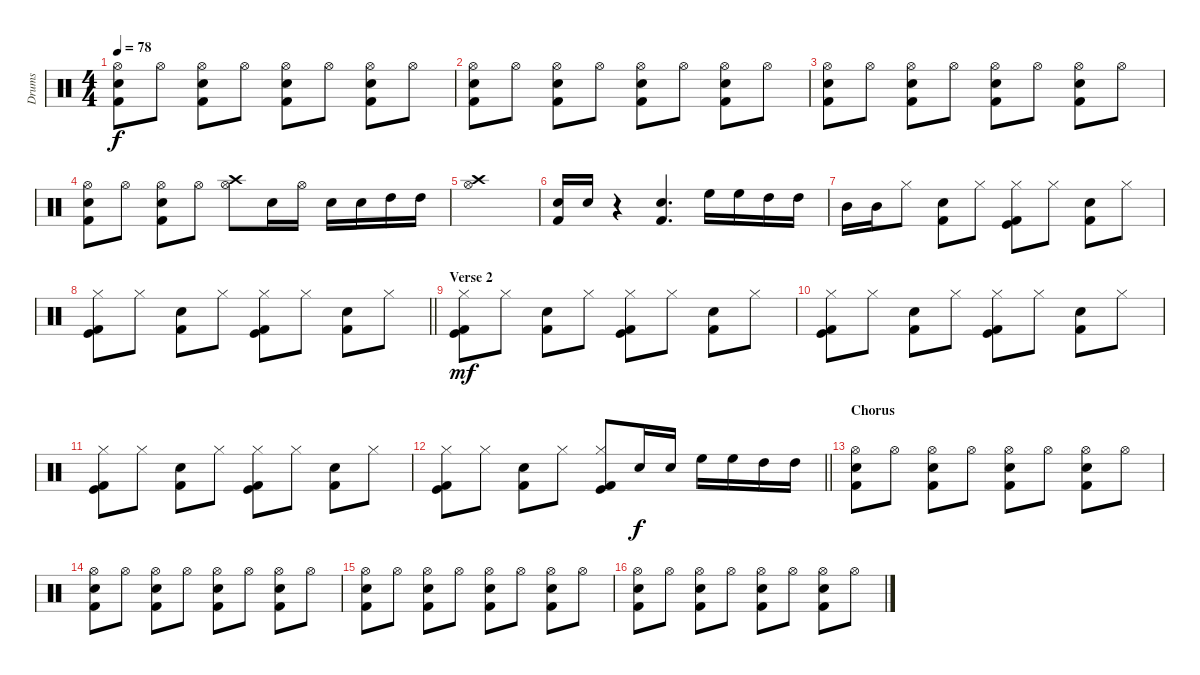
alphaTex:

\track ("Drums" "Drums") {instrument percussion}
\staff {score}
\articulation defaults
\ts (4 4)
\tempo 78
\clef neutral
\ks c
("Hi-Hat (open)" "Snare (hit) 2" "Kick (hit) 2").8{dy f} "Hi-Hat (open)".8 ("Hi-Hat (open)" "Snare (hit) 2" "Kick (hit) 2").8 "Hi-Hat (open)".8 ("Hi-Hat (open)" "Snare (hit) 2" "Kick (hit) 2").8 "Hi-Hat (open)".8 ("Hi-Hat (open)" "Snare (hit) 2" "Kick (hit) 2").8 "Hi-Hat (open)".8 |
("Hi-Hat (open)" "Snare (hit) 2" "Kick (hit) 2").8 "Hi-Hat (open)".8 ("Hi-Hat (open)" "Snare (hit) 2" "Kick (hit) 2").8 "Hi-Hat (open)".8 ("Hi-Hat (open)" "Snare (hit) 2" "Kick (hit) 2").8 "Hi-Hat (open)".8 ("Hi-Hat (open)" "Snare (hit) 2" "Kick (hit) 2").8 "Hi-Hat (open)".8 |
("Hi-Hat (open)" "Snare (hit) 2" "Kick (hit) 2").8 "Hi-Hat (open)".8 ("Hi-Hat (open)" "Snare (hit) 2" "Kick (hit) 2").8 "Hi-Hat (open)".8 ("Hi-Hat (open)" "Snare (hit) 2" "Kick (hit) 2").8 "Hi-Hat (open)".8 ("Hi-Hat (open)" "Snare (hit) 2" "Kick (hit) 2").8 "Hi-Hat (open)".8 |
("Hi-Hat (open)" "Snare (hit) 2" "Kick (hit) 2").8 "Hi-Hat (open)".8 ("Hi-Hat (open)" "Snare (hit) 2" "Kick (hit) 2").8 "Hi-Hat (open)".8 ("Crash high (hit)" "Hi-Hat (open)").8 "Snare (hit) 2".16 "Hi-Hat (open)".16 "Snare (hit) 2".16 "Snare (hit) 2".16 "High Tom (hit)".16 "High Tom (hit)".16 |
("Crash high (hit)" "Hi-Hat (open)").1 |
("Snare (hit) 2" "Kick (hit) 2").16 "Snare (hit) 2".16 r.4 ("Snare (hit) 2" "Kick (hit) 2").4{d} "High Floor Tom (hit)".16 "High Floor Tom (hit)".16 "High Tom (hit)".16 "High Tom (hit)".16 |
"Mid Tom (hit)".16 "Mid Tom (hit)".16 "Hi-Hat (closed)".8 ("Snare (hit) 2" "Kick (hit) 2").8 "Hi-Hat (closed)".8 ("Hi-Hat (closed)" "Kick (hit)" "Kick (hit) 2").8 "Hi-Hat (closed)".8 ("Snare (hit) 2" "Kick (hit) 2").8 "Hi-Hat (closed)".8 |
\barLineRight lightlight
("Hi-Hat (closed)" "Kick (hit)" "Kick (hit) 2").8 "Hi-Hat (closed)".8 ("Snare (hit) 2" "Kick (hit) 2").8 "Hi-Hat (closed)".8 ("Hi-Hat (closed)" "Kick (hit)" "Kick (hit) 2").8 "Hi-Hat (closed)".8 ("Snare (hit) 2" "Kick (hit) 2").8 "Hi-Hat (closed)".8 |
\section ("" "Verse 2")
("Hi-Hat (closed)" "Kick (hit)" "Kick (hit) 2").8{dy mf} "Hi-Hat (closed)".8 ("Snare (hit) 2" "Kick (hit) 2").8 "Hi-Hat (closed)".8 ("Hi-Hat (closed)" "Kick (hit)" "Kick (hit) 2").8 "Hi-Hat (closed)".8 ("Snare (hit) 2" "Kick (hit) 2").8 "Hi-Hat (closed)".8 |
("Hi-Hat (closed)" "Kick (hit)" "Kick (hit) 2").8 "Hi-Hat (closed)".8 ("Snare (hit) 2" "Kick (hit) 2").8 "Hi-Hat (closed)".8 ("Hi-Hat (closed)" "Kick (hit)" "Kick (hit) 2").8 "Hi-Hat (closed)".8 ("Snare (hit) 2" "Kick (hit) 2").8 "Hi-Hat (closed)".8 |
("Hi-Hat (closed)" "Kick (hit)" "Kick (hit) 2").8 "Hi-Hat (closed)".8 ("Snare (hit) 2" "Kick (hit) 2").8 "Hi-Hat (closed)".8 ("Hi-Hat (closed)" "Kick (hit)" "Kick (hit) 2").8 "Hi-Hat (closed)".8 ("Snare (hit) 2" "Kick (hit) 2").8 "Hi-Hat (closed)".8 |
\barLineRight lightlight
("Hi-Hat (closed)" "Kick (hit)" "Kick (hit) 2").8 "Hi-Hat (closed)".8 ("Snare (hit) 2" "Kick (hit) 2").8 "Hi-Hat (closed)".8 ("Hi-Hat (closed)" "Kick (hit)" "Kick (hit) 2").8 "Snare (hit) 2".16{dy f} "Snare (hit) 2".16 "High Floor Tom (hit)".16 "High Floor Tom (hit)".16 "High Tom (hit)".16 "High Tom (hit)".16 |
\section ("" "Chorus")
("Hi-Hat (open)" "Snare (hit) 2" "Kick (hit) 2").8 "Hi-Hat (open)".8 ("Hi-Hat (open)" "Snare (hit) 2" "Kick (hit) 2").8 "Hi-Hat (open)".8 ("Hi-Hat (open)" "Snare (hit) 2" "Kick (hit) 2").8 "Hi-Hat (open)".8 ("Hi-Hat (open)" "Snare (hit) 2" "Kick (hit) 2").8 "Hi-Hat (open)".8 |
("Hi-Hat (open)" "Snare (hit) 2" "Kick (hit) 2").8 "Hi-Hat (open)".8 ("Hi-Hat (open)" "Snare (hit) 2" "Kick (hit) 2").8 "Hi-Hat (open)".8 ("Hi-Hat (open)" "Snare (hit) 2" "Kick (hit) 2").8 "Hi-Hat (open)".8 ("Hi-Hat (open)" "Snare (hit) 2" "Kick (hit) 2").8 "Hi-Hat (open)".8 |
("Hi-Hat (open)" "Snare (hit) 2" "Kick (hit) 2").8 "Hi-Hat (open)".8 ("Hi-Hat (open)" "Snare (hit) 2" "Kick (hit) 2").8 "Hi-Hat (open)".8 ("Hi-Hat (open)" "Snare (hit) 2" "Kick (hit) 2").8 "Hi-Hat (open)".8 ("Hi-Hat (open)" "Snare (hit) 2" "Kick (hit) 2").8 "Hi-Hat (open)".8 |
("Hi-Hat (open)" "Snare (hit) 2" "Kick (hit) 2").8 "Hi-Hat (open)".8 ("Hi-Hat (open)" "Snare (hit) 2" "Kick (hit) 2").8 "Hi-Hat (open)".8 ("Hi-Hat (open)" "Snare (hit) 2" "Kick (hit) 2").8 "Hi-Hat (open)".8 ("Hi-Hat (open)" "Snare (hit) 2" "Kick (hit) 2").8 "Hi-Hat (open)".8
